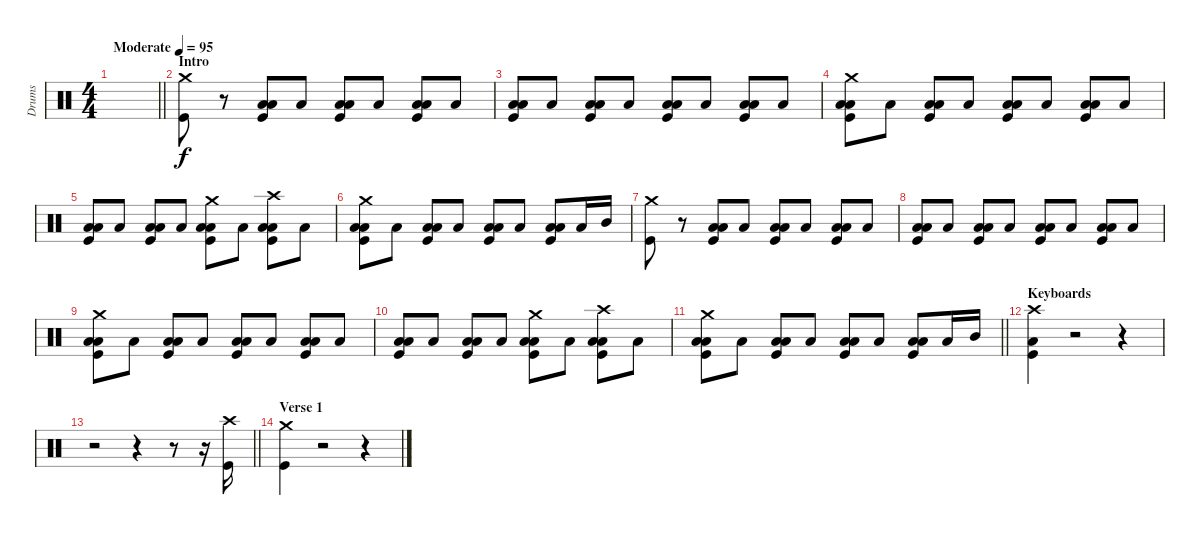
\track ("Drums" "Drums") {instrument percussion}
\staff {score}
\articulation defaults
\ts (4 4)
\tempo (95 "Moderate")
\clef neutral
\barLineRight lightlight
\ks c
|
\section ("" "Intro")
("Crash medium (hit)" "Kick (hit)").8 r.8 ("Low Floor Tom (hit)" "Low Tom (hit)" "Kick (hit)").8 "Low Floor Tom (hit)".8 ("Low Floor Tom (hit)" "Low Tom (hit)" "Kick (hit)").8 "Low Floor Tom (hit)".8 ("Low Floor Tom (hit)" "Low Tom (hit)" "Kick (hit)").8 "Low Floor Tom (hit)".8 |
("Low Floor Tom (hit)" "Low Tom (hit)" "Kick (hit)").8 "Low Floor Tom (hit)".8 ("Low Floor Tom (hit)" "Low Tom (hit)" "Kick (hit)").8 "Low Floor Tom (hit)".8 ("Low Floor Tom (hit)" "Low Tom (hit)" "Kick (hit)").8 "Low Floor Tom (hit)".8 ("Low Floor Tom (hit)" "Low Tom (hit)" "Kick (hit)").8 "Low Floor Tom (hit)".8 |
("Crash medium (hit)" "Low Floor Tom (hit)" "Low Tom (hit)" "Kick (hit)").8 "Low Floor Tom (hit)".8 ("Low Floor Tom (hit)" "Low Tom (hit)" "Kick (hit)").8 "Low Floor Tom (hit)".8 ("Low Floor Tom (hit)" "Low Tom (hit)" "Kick (hit)").8 "Low Floor Tom (hit)".8 ("Low Floor Tom (hit)" "Low Tom (hit)" "Kick (hit)").8 "Low Floor Tom (hit)".8 |
("Low Floor Tom (hit)" "Low Tom (hit)" "Kick (hit)").8 "Low Floor Tom (hit)".8 ("Low Floor Tom (hit)" "Low Tom (hit)" "Kick (hit)").8 "Low Floor Tom (hit)".8 ("Crash medium (hit)" "Low Floor Tom (hit)" "Low Tom (hit)" "Kick (hit)").8 "Low Floor Tom (hit)".8 ("Crash high (hit)" "Low Floor Tom (hit)" "Low Tom (hit)" "Kick (hit)").8 "Low Floor Tom (hit)".8 |
("Crash medium (hit)" "Low Floor Tom (hit)" "Low Tom (hit)" "Kick (hit)").8 "Low Floor Tom (hit)".8 ("Low Floor Tom (hit)" "Low Tom (hit)" "Kick (hit)").8 "Low Floor Tom (hit)".8 ("Low Floor Tom (hit)" "Low Tom (hit)" "Kick (hit)").8 "Low Floor Tom (hit)".8 ("Low Floor Tom (hit)" "Low Tom (hit)" "Kick (hit)").8 "Low Tom (hit)".16 "Mid Tom (hit)".16 |
("Crash medium (hit)" "Kick (hit)").8 r.8 ("Low Floor Tom (hit)" "Low Tom (hit)" "Kick (hit)").8 "Low Floor Tom (hit)".8 ("Low Floor Tom (hit)" "Low Tom (hit)" "Kick (hit)").8 "Low Floor Tom (hit)".8 ("Low Floor Tom (hit)" "Low Tom (hit)" "Kick (hit)").8 "Low Floor Tom (hit)".8 |
("Low Floor Tom (hit)" "Low Tom (hit)" "Kick (hit)").8 "Low Floor Tom (hit)".8 ("Low Floor Tom (hit)" "Low Tom (hit)" "Kick (hit)").8 "Low Floor Tom (hit)".8 ("Low Floor Tom (hit)" "Low Tom (hit)" "Kick (hit)").8 "Low Floor Tom (hit)".8 ("Low Floor Tom (hit)" "Low Tom (hit)" "Kick (hit)").8 "Low Floor Tom (hit)".8 |
("Crash medium (hit)" "Low Floor Tom (hit)" "Low Tom (hit)" "Kick (hit)").8 "Low Floor Tom (hit)".8 ("Low Floor Tom (hit)" "Low Tom (hit)" "Kick (hit)").8 "Low Floor Tom (hit)".8 ("Low Floor Tom (hit)" "Low Tom (hit)" "Kick (hit)").8 "Low Floor Tom (hit)".8 ("Low Floor Tom (hit)" "Low Tom (hit)" "Kick (hit)").8 "Low Floor Tom (hit)".8 |
("Low Floor Tom (hit)" "Low Tom (hit)" "Kick (hit)").8 "Low Floor Tom (hit)".8 ("Low Floor Tom (hit)" "Low Tom (hit)" "Kick (hit)").8 "Low Floor Tom (hit)".8 ("Crash medium (hit)" "Low Floor Tom (hit)" "Low Tom (hit)" "Kick (hit)").8 "Low Floor Tom (hit)".8 ("Crash high (hit)" "Low Floor Tom (hit)" "Low Tom (hit)" "Kick (hit)").8 "Low Floor Tom (hit)".8 |
\barLineRight lightlight
("Crash medium (hit)" "Low Floor Tom (hit)" "Low Tom (hit)" "Kick (hit)").8 "Low Floor Tom (hit)".8 ("Low Floor Tom (hit)" "Low Tom (hit)" "Kick (hit)").8 "Low Floor Tom (hit)".8 ("Low Floor Tom (hit)" "Low Tom (hit)" "Kick (hit)").8 "Low Floor Tom (hit)".8 ("Low Floor Tom (hit)" "Low Tom (hit)" "Kick (hit)").8 "Low Tom (hit)".16 "Mid Tom (hit)".16 |
\section ("" "Keyboards")
("Crash high (hit)" "Low Floor Tom (hit)" "Kick (hit)").4 r.2 r.4 |
\barLineRight lightlight
r.2 r.4 r.8 r.16 ("Crash high (hit)" "Kick (hit)").16 |
\section ("" "Verse 1")
("Crash medium (hit)" "Kick (hit)").4 r.2 r.4
